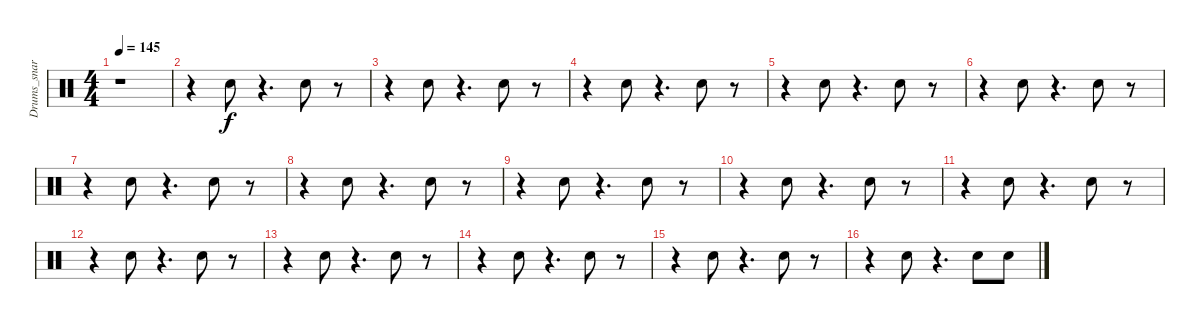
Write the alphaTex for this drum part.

\track ("Drums_snare&tom" "Drums_snar") {instrument percussion}
\staff {score}
\articulation defaults
\ts (4 4)
\tempo 145
\clef neutral
\ks c
r.1{dy f} |
r.4 "Electric Snare (hit)".8 r.4{d} "Electric Snare (hit)".8 r.8 |
r.4 "Electric Snare (hit)".8 r.4{d} "Electric Snare (hit)".8 r.8 |
r.4 "Electric Snare (hit)".8 r.4{d} "Electric Snare (hit)".8 r.8 |
r.4 "Electric Snare (hit)".8 r.4{d} "Electric Snare (hit)".8 r.8 |
r.4 "Electric Snare (hit)".8 r.4{d} "Electric Snare (hit)".8 r.8 |
r.4 "Electric Snare (hit)".8 r.4{d} "Electric Snare (hit)".8 r.8 |
r.4 "Electric Snare (hit)".8 r.4{d} "Electric Snare (hit)".8 r.8 |
r.4 "Electric Snare (hit)".8 r.4{d} "Electric Snare (hit)".8 r.8 |
r.4 "Electric Snare (hit)".8 r.4{d} "Electric Snare (hit)".8 r.8 |
r.4 "Electric Snare (hit)".8 r.4{d} "Electric Snare (hit)".8 r.8 |
r.4 "Electric Snare (hit)".8 r.4{d} "Electric Snare (hit)".8 r.8 |
r.4 "Electric Snare (hit)".8 r.4{d} "Electric Snare (hit)".8 r.8 |
r.4 "Electric Snare (hit)".8 r.4{d} "Electric Snare (hit)".8 r.8 |
r.4 "Electric Snare (hit)".8 r.4{d} "Electric Snare (hit)".8 r.8 |
r.4 "Electric Snare (hit)".8 r.4{d} "Electric Snare (hit)".8 "Electric Snare (hit)".8
